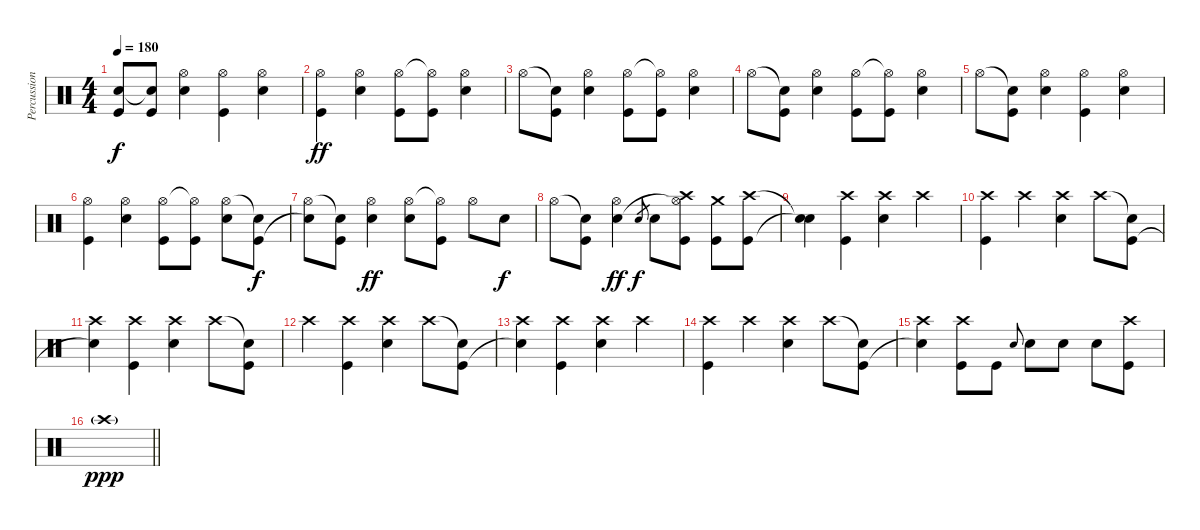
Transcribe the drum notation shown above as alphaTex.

\track ("Percussion" "Percussion") {instrument percussion}
\staff {score}
\articulation defaults
\ts (4 4)
\tempo 180
\clef neutral
\ks c
("Snare (hit)"{t} "Kick (hit)"{t}).8{dy f} ("Snare (hit)"{t} "Kick (hit)").8 ("Hi-Hat (open)" "Snare (hit) 2").4 ("Hi-Hat (open)" "Kick (hit)").4 ("Hi-Hat (open)" "Snare (hit) 2").4 |
("Hi-Hat (open)" "Kick (hit)").4{dy ff} ("Hi-Hat (open)" "Snare (hit) 2").4 ("Hi-Hat (open)" "Kick (hit)").8 ("Hi-Hat (open)"{t} "Kick (hit)").8 ("Hi-Hat (open)" "Snare (hit) 2").4 |
"Hi-Hat (open)".8 ("Snare (hit)"{t} "Kick (hit)").8 ("Hi-Hat (open)" "Snare (hit) 2").4 ("Hi-Hat (open)" "Kick (hit)").8 ("Hi-Hat (open)"{t} "Kick (hit)").8 ("Hi-Hat (open)" "Snare (hit) 2").4 |
"Hi-Hat (open)".8 ("Snare (hit)"{t} "Kick (hit)").8 ("Hi-Hat (open)" "Snare (hit) 2").4 ("Hi-Hat (open)" "Kick (hit)").8 ("Hi-Hat (open)"{t} "Kick (hit)").8 ("Hi-Hat (open)" "Snare (hit) 2").4 |
"Hi-Hat (open)".8 ("Snare (hit)"{t} "Kick (hit)").8 ("Hi-Hat (open)" "Snare (hit) 2").4 ("Hi-Hat (open)" "Kick (hit)").4 ("Hi-Hat (open)" "Snare (hit) 2").4 |
("Hi-Hat (open)" "Kick (hit)").4 ("Hi-Hat (open)" "Snare (hit) 2").4 ("Hi-Hat (open)" "Kick (hit)").8 ("Hi-Hat (open)"{t} "Kick (hit)").8 ("Hi-Hat (open)" "Snare (hit) 2").8 ("Snare (hit)"{t} "Kick (hit)").8{dy f} |
("Hi-Hat (open)" "Snare (hit)"{t}).8 ("Snare (hit)"{t} "Kick (hit)").8 ("Hi-Hat (open)" "Snare (hit) 2").4{dy ff} ("Hi-Hat (open)" "Snare (hit) 2").8 ("Hi-Hat (open)"{t} "Kick (hit)").8 "Hi-Hat (open)".8 "Snare (hit) 2".8{dy f} |
"Hi-Hat (open)".8 ("Snare (hit)"{t} "Kick (hit)").8 ("Hi-Hat (open)" "Snare (hit) 2").4{dy ff} "Snare (hit) 2".8{gr dy f} "Snare (hit) 2".8 ("Crash high (hit)" "Hi-Hat (open)"{t} "Kick (hit)").8 ("Crash medium (hit)" "Kick (hit)").8 ("Crash high (hit)" "Kick (hit)").8 |
("Snare (hit)"{t} "Snare (hit)"{t}).4 ("Crash high (hit)" "Kick (hit)").4 ("Crash high (hit)" "Snare (hit) 2").4 "Crash high (hit)".4 |
("Crash high (hit)" "Kick (hit)").4 "Crash high (hit)".4 ("Crash high (hit)" "Snare (hit) 2").4 "Crash high (hit)".8 ("Snare (hit)"{t} "Kick (hit)").8 |
("Crash high (hit)" "Snare (hit)"{t}).4 ("Crash high (hit)" "Kick (hit)").4 ("Crash high (hit)" "Snare (hit) 2").4 "Crash high (hit)".8 ("Snare (hit)"{t} "Kick (hit)").8 |
"Crash high (hit)".4 ("Crash high (hit)" "Kick (hit)").4 ("Crash high (hit)" "Snare (hit) 2").4 "Crash high (hit)".8 ("Snare (hit)"{t} "Kick (hit)").8 |
("Crash high (hit)" "Snare (hit)"{t}).4 ("Crash high (hit)" "Kick (hit)").4 ("Crash high (hit)" "Snare (hit) 2").4 "Crash high (hit)".4 |
("Crash high (hit)" "Kick (hit)").4 "Crash high (hit)".4 ("Crash high (hit)" "Snare (hit) 2").4 "Crash high (hit)".8 ("Snare (hit)"{t} "Kick (hit)").8 |
("Crash high (hit)" "Snare (hit)"{t}).4 ("Crash high (hit)" "Kick (hit)").8 "Kick (hit)".8 "Snare (hit) 2".8{gr onbeat} "Snare (hit) 2".8 "Snare (hit) 2".8 "Snare (hit) 2".8 ("Crash high (hit)" "Kick (hit)").8 |
\barLineRight lightlight "Crash high (hit)"{g}.1{dy ppp}
